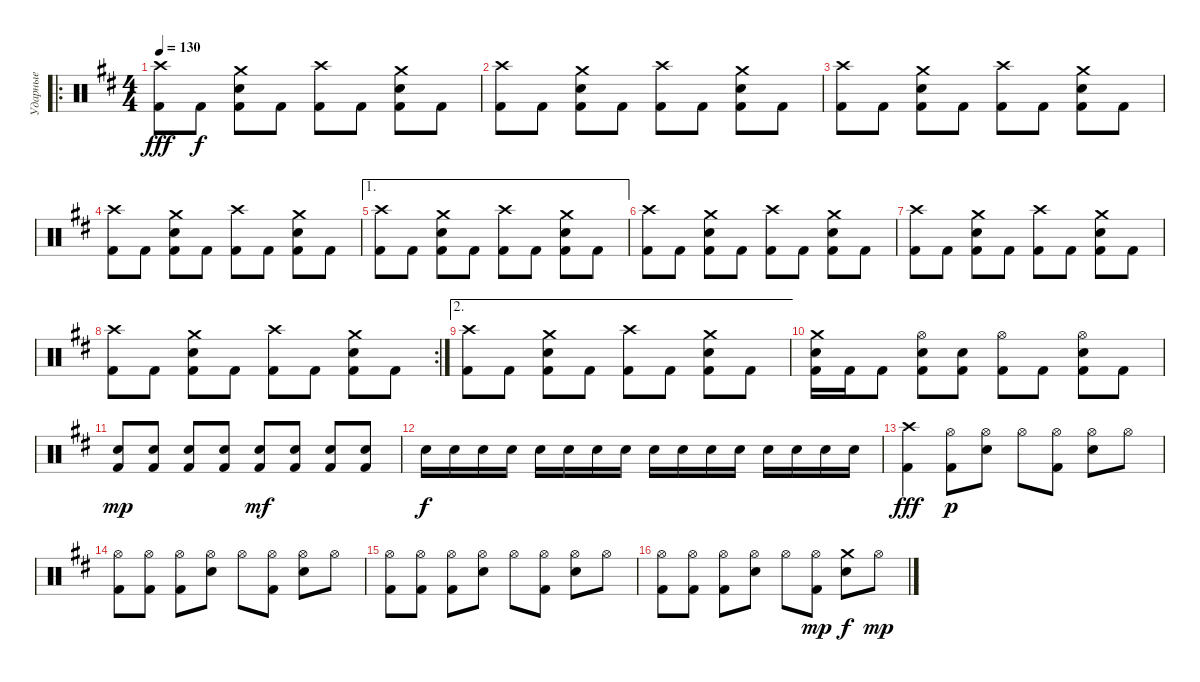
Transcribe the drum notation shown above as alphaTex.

\track ("Ударные" "Ударные") {instrument percussion}
\staff {score}
\articulation defaults
\ro
\ts (4 4)
\tempo 130
\clef neutral
\ks d
("Kick (hit) 2" "Crash high (hit)").8{dy fff} "Kick (hit) 2".8{dy f} ("Kick (hit) 2" "Electric Snare (hit)" "Crash medium (hit)").8 "Kick (hit) 2".8 ("Kick (hit) 2" "Crash high (hit)").8 "Kick (hit) 2".8 ("Kick (hit) 2" "Electric Snare (hit)" "Crash medium (hit)").8 "Kick (hit) 2".8 |
("Kick (hit) 2" "Crash high (hit)").8 "Kick (hit) 2".8 ("Kick (hit) 2" "Electric Snare (hit)" "Crash medium (hit)").8 "Kick (hit) 2".8 ("Kick (hit) 2" "Crash high (hit)").8 "Kick (hit) 2".8 ("Kick (hit) 2" "Electric Snare (hit)" "Crash medium (hit)").8 "Kick (hit) 2".8 |
("Kick (hit) 2" "Crash high (hit)").8 "Kick (hit) 2".8 ("Kick (hit) 2" "Electric Snare (hit)" "Crash medium (hit)").8 "Kick (hit) 2".8 ("Kick (hit) 2" "Crash high (hit)").8 "Kick (hit) 2".8 ("Kick (hit) 2" "Electric Snare (hit)" "Crash medium (hit)").8 "Kick (hit) 2".8 |
("Kick (hit) 2" "Crash high (hit)").8 "Kick (hit) 2".8 ("Kick (hit) 2" "Electric Snare (hit)" "Crash medium (hit)").8 "Kick (hit) 2".8 ("Kick (hit) 2" "Crash high (hit)").8 "Kick (hit) 2".8 ("Kick (hit) 2" "Electric Snare (hit)" "Crash medium (hit)").8 "Kick (hit) 2".8 |
\ae 1
("Kick (hit) 2" "Crash high (hit)").8 "Kick (hit) 2".8 ("Kick (hit) 2" "Electric Snare (hit)" "Crash medium (hit)").8 "Kick (hit) 2".8 ("Kick (hit) 2" "Crash high (hit)").8 "Kick (hit) 2".8 ("Kick (hit) 2" "Electric Snare (hit)" "Crash medium (hit)").8 "Kick (hit) 2".8 |
("Kick (hit) 2" "Crash high (hit)").8 "Kick (hit) 2".8 ("Kick (hit) 2" "Electric Snare (hit)" "Crash medium (hit)").8 "Kick (hit) 2".8 ("Kick (hit) 2" "Crash high (hit)").8 "Kick (hit) 2".8 ("Kick (hit) 2" "Electric Snare (hit)" "Crash medium (hit)").8 "Kick (hit) 2".8 |
("Kick (hit) 2" "Crash high (hit)").8 "Kick (hit) 2".8 ("Kick (hit) 2" "Electric Snare (hit)" "Crash medium (hit)").8 "Kick (hit) 2".8 ("Kick (hit) 2" "Crash high (hit)").8 "Kick (hit) 2".8 ("Kick (hit) 2" "Electric Snare (hit)" "Crash medium (hit)").8 "Kick (hit) 2".8 |
\rc 2
("Kick (hit) 2" "Crash high (hit)").8 "Kick (hit) 2".8 ("Kick (hit) 2" "Electric Snare (hit)" "Crash medium (hit)").8 "Kick (hit) 2".8 ("Kick (hit) 2" "Crash high (hit)").8 "Kick (hit) 2".8 ("Kick (hit) 2" "Electric Snare (hit)" "Crash medium (hit)").8 "Kick (hit) 2".8 |
\ae 2
("Kick (hit) 2" "Crash high (hit)").8 "Kick (hit) 2".8 ("Kick (hit) 2" "Electric Snare (hit)" "Crash medium (hit)").8 "Kick (hit) 2".8 ("Kick (hit) 2" "Crash high (hit)").8 "Kick (hit) 2".8 ("Kick (hit) 2" "Electric Snare (hit)" "Crash medium (hit)").8 "Kick (hit) 2".8 |
("Kick (hit) 2" "Electric Snare (hit)" "Crash medium (hit)").16 "Kick (hit) 2".16 "Kick (hit) 2".8 ("Kick (hit) 2" "Electric Snare (hit)" "Hi-Hat (open)").8 ("Kick (hit) 2" "Electric Snare (hit)").8 ("Kick (hit) 2" "Hi-Hat (open)").8 "Kick (hit) 2".8 ("Kick (hit) 2" "Electric Snare (hit)" "Hi-Hat (open)").8 "Kick (hit) 2".8 |
("Kick (hit) 2" "Electric Snare (hit)").8{dy mp} ("Kick (hit) 2" "Electric Snare (hit)").8 ("Kick (hit) 2" "Electric Snare (hit)").8 ("Kick (hit) 2" "Electric Snare (hit)").8 ("Kick (hit) 2" "Electric Snare (hit)").8{dy mf} ("Kick (hit) 2" "Electric Snare (hit)").8 ("Kick (hit) 2" "Electric Snare (hit)").8 ("Kick (hit) 2" "Electric Snare (hit)").8 |
"Snare (hit) 2".16{dy f} "Snare (hit) 2".16 "Snare (hit) 2".16 "Snare (hit) 2".16 "Snare (hit) 2".16 "Snare (hit) 2".16 "Snare (hit) 2".16 "Snare (hit) 2".16 "Electric Snare (hit)".16 "Electric Snare (hit)".16 "Electric Snare (hit)".16 "Electric Snare (hit)".16 "Electric Snare (hit)".16 "Electric Snare (hit)".16 "Electric Snare (hit)".16 "Electric Snare (hit)".16 |
("Crash high (hit)" "Kick (hit) 2").4{dy fff} ("Kick (hit) 2" "Hi-Hat (open)").8{dy p} ("Electric Snare (hit)" "Hi-Hat (open)").8 "Hi-Hat (open)".8 ("Kick (hit) 2" "Hi-Hat (open)").8 ("Electric Snare (hit)" "Hi-Hat (open)").8 "Hi-Hat (open)".8 |
("Kick (hit) 2" "Hi-Hat (open)").8 ("Kick (hit) 2" "Hi-Hat (open)").8 ("Kick (hit) 2" "Hi-Hat (open)").8 ("Electric Snare (hit)" "Hi-Hat (open)").8 "Hi-Hat (open)".8 ("Kick (hit) 2" "Hi-Hat (open)").8 ("Electric Snare (hit)" "Hi-Hat (open)").8 "Hi-Hat (open)".8 |
("Kick (hit) 2" "Hi-Hat (open)").8 ("Kick (hit) 2" "Hi-Hat (open)").8 ("Kick (hit) 2" "Hi-Hat (open)").8 ("Electric Snare (hit)" "Hi-Hat (open)").8 "Hi-Hat (open)".8 ("Kick (hit) 2" "Hi-Hat (open)").8 ("Electric Snare (hit)" "Hi-Hat (open)").8 "Hi-Hat (open)".8 |
("Kick (hit) 2" "Hi-Hat (open)").8 ("Kick (hit) 2" "Hi-Hat (open)").8 ("Kick (hit) 2" "Hi-Hat (open)").8 ("Electric Snare (hit)" "Hi-Hat (open)").8 "Hi-Hat (open)".8 ("Kick (hit) 2" "Hi-Hat (open)").8{dy mp} ("Electric Snare (hit)" "Crash medium (hit)").8{dy f} "Hi-Hat (open)".8{dy mp}
